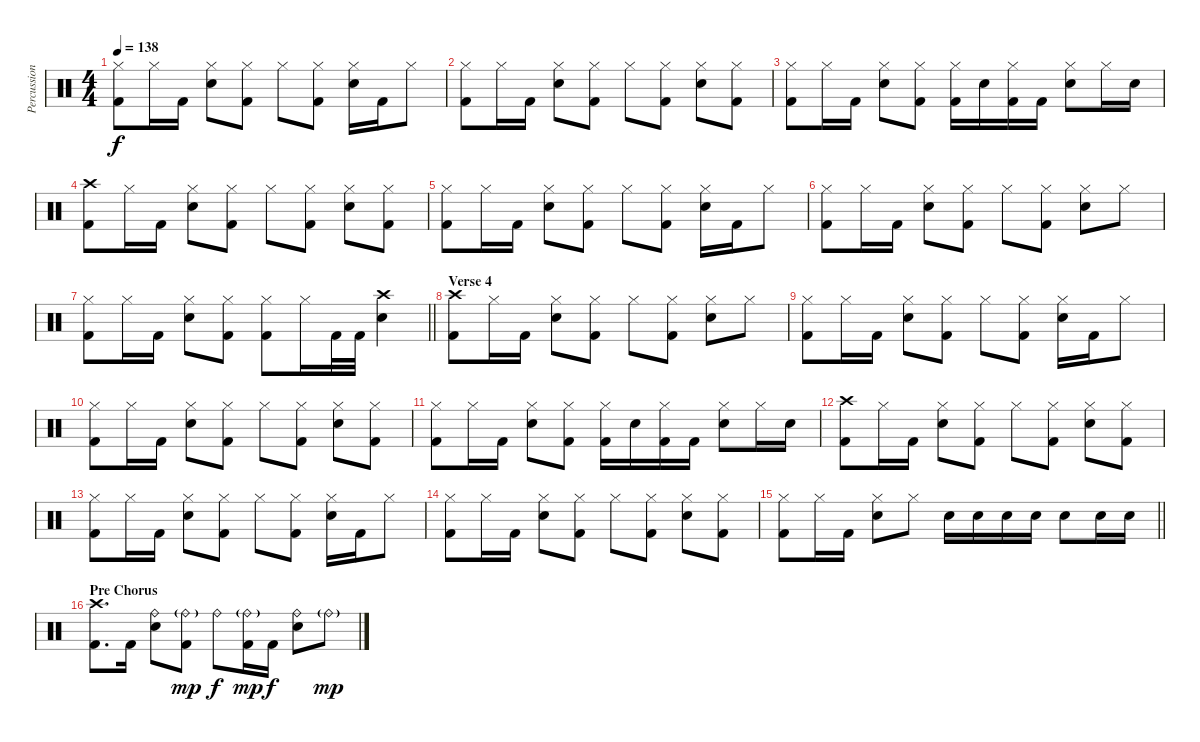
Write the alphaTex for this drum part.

\track ("Percussion" "Percussion") {instrument percussion}
\staff {score}
\articulation defaults
\ts (4 4)
\tempo 138
\clef neutral
\ks c
("Hi-Hat (closed)" "Kick (hit) 2").8{dy f} "Hi-Hat (closed)".16 "Kick (hit) 2".16 ("Hi-Hat (closed)" "Snare (hit) 2").8 ("Hi-Hat (closed)" "Kick (hit) 2").8 "Hi-Hat (closed)".8 ("Hi-Hat (closed)" "Kick (hit) 2").8 ("Hi-Hat (closed)" "Snare (hit) 2").16 "Kick (hit) 2".16 "Hi-Hat (closed)".8 |
("Hi-Hat (closed)" "Kick (hit) 2").8 "Hi-Hat (closed)".16 "Kick (hit) 2".16 ("Hi-Hat (closed)" "Snare (hit) 2").8 ("Hi-Hat (closed)" "Kick (hit) 2").8 "Hi-Hat (closed)".8 ("Hi-Hat (closed)" "Kick (hit) 2").8 ("Hi-Hat (closed)" "Snare (hit) 2").8 ("Hi-Hat (closed)" "Kick (hit) 2").8 |
("Hi-Hat (closed)" "Kick (hit) 2").8 "Hi-Hat (closed)".16 "Kick (hit) 2".16 ("Hi-Hat (closed)" "Snare (hit) 2").8 ("Hi-Hat (closed)" "Kick (hit) 2").8 ("Hi-Hat (closed)" "Kick (hit) 2").16 "Snare (hit) 2".16 ("Hi-Hat (closed)" "Kick (hit) 2").16 "Kick (hit) 2".16 ("Hi-Hat (closed)" "Snare (hit) 2").8 "Hi-Hat (closed)".16 "Snare (hit) 2".16 |
("Crash high (hit)" "Kick (hit) 2").8 "Hi-Hat (closed)".16 "Kick (hit) 2".16 ("Hi-Hat (closed)" "Snare (hit) 2").8 ("Hi-Hat (closed)" "Kick (hit) 2").8 "Hi-Hat (closed)".8 ("Hi-Hat (closed)" "Kick (hit) 2").8 ("Hi-Hat (closed)" "Snare (hit) 2").8 ("Hi-Hat (closed)" "Kick (hit) 2").8 |
("Hi-Hat (closed)" "Kick (hit) 2").8 "Hi-Hat (closed)".16 "Kick (hit) 2".16 ("Hi-Hat (closed)" "Snare (hit) 2").8 ("Hi-Hat (closed)" "Kick (hit) 2").8 "Hi-Hat (closed)".8 ("Hi-Hat (closed)" "Kick (hit) 2").8 ("Hi-Hat (closed)" "Snare (hit) 2").16 "Kick (hit) 2".16 "Hi-Hat (closed)".8 |
("Hi-Hat (closed)" "Kick (hit) 2").8 "Hi-Hat (closed)".16 "Kick (hit) 2".16 ("Hi-Hat (closed)" "Snare (hit) 2").8 ("Hi-Hat (closed)" "Kick (hit) 2").8 "Hi-Hat (closed)".8 ("Hi-Hat (closed)" "Kick (hit) 2").8 ("Hi-Hat (closed)" "Snare (hit) 2").8 "Hi-Hat (closed)".8 |
\barLineRight lightlight
("Hi-Hat (closed)" "Kick (hit) 2").8 "Hi-Hat (closed)".16 "Kick (hit) 2".16 ("Hi-Hat (closed)" "Snare (hit) 2").8 ("Hi-Hat (closed)" "Kick (hit) 2").8 ("Hi-Hat (closed)" "Kick (hit) 2").8 "Hi-Hat (closed)".16 "Kick (hit) 2".32 "Kick (hit) 2".32 ("Crash high (hit)" "Snare (hit) 2").4 |
\section ("" "Verse 4")
("Crash high (hit)" "Kick (hit) 2").8 "Hi-Hat (closed)".16 "Kick (hit) 2".16 ("Hi-Hat (closed)" "Snare (hit) 2").8 ("Hi-Hat (closed)" "Kick (hit) 2").8 "Hi-Hat (closed)".8 ("Hi-Hat (closed)" "Kick (hit) 2").8 ("Hi-Hat (closed)" "Snare (hit) 2").8 "Hi-Hat (closed)".8 |
("Hi-Hat (closed)" "Kick (hit) 2").8 "Hi-Hat (closed)".16 "Kick (hit) 2".16 ("Hi-Hat (closed)" "Snare (hit) 2").8 ("Hi-Hat (closed)" "Kick (hit) 2").8 "Hi-Hat (closed)".8 ("Hi-Hat (closed)" "Kick (hit) 2").8 ("Hi-Hat (closed)" "Snare (hit) 2").16 "Kick (hit) 2".16 "Hi-Hat (closed)".8 |
("Hi-Hat (closed)" "Kick (hit) 2").8 "Hi-Hat (closed)".16 "Kick (hit) 2".16 ("Hi-Hat (closed)" "Snare (hit) 2").8 ("Hi-Hat (closed)" "Kick (hit) 2").8 "Hi-Hat (closed)".8 ("Hi-Hat (closed)" "Kick (hit) 2").8 ("Hi-Hat (closed)" "Snare (hit) 2").8 ("Hi-Hat (closed)" "Kick (hit) 2").8 |
("Hi-Hat (closed)" "Kick (hit) 2").8 "Hi-Hat (closed)".16 "Kick (hit) 2".16 ("Hi-Hat (closed)" "Snare (hit) 2").8 ("Hi-Hat (closed)" "Kick (hit) 2").8 ("Hi-Hat (closed)" "Kick (hit) 2").16 "Snare (hit) 2".16 ("Hi-Hat (closed)" "Kick (hit) 2").16 "Kick (hit) 2".16 ("Hi-Hat (closed)" "Snare (hit) 2").8 "Hi-Hat (closed)".16 "Snare (hit) 2".16 |
("Crash high (hit)" "Kick (hit) 2").8 "Hi-Hat (closed)".16 "Kick (hit) 2".16 ("Hi-Hat (closed)" "Snare (hit) 2").8 ("Hi-Hat (closed)" "Kick (hit) 2").8 "Hi-Hat (closed)".8 ("Hi-Hat (closed)" "Kick (hit) 2").8 ("Hi-Hat (closed)" "Snare (hit) 2").8 ("Hi-Hat (closed)" "Kick (hit) 2").8 |
("Hi-Hat (closed)" "Kick (hit) 2").8 "Hi-Hat (closed)".16 "Kick (hit) 2".16 ("Hi-Hat (closed)" "Snare (hit) 2").8 ("Hi-Hat (closed)" "Kick (hit) 2").8 "Hi-Hat (closed)".8 ("Hi-Hat (closed)" "Kick (hit) 2").8 ("Hi-Hat (closed)" "Snare (hit) 2").16 "Kick (hit) 2".16 "Hi-Hat (closed)".8 |
("Hi-Hat (closed)" "Kick (hit) 2").8 "Hi-Hat (closed)".16 "Kick (hit) 2".16 ("Hi-Hat (closed)" "Snare (hit) 2").8 ("Hi-Hat (closed)" "Kick (hit) 2").8 "Hi-Hat (closed)".8 ("Hi-Hat (closed)" "Kick (hit) 2").8 ("Hi-Hat (closed)" "Snare (hit) 2").8 ("Hi-Hat (closed)" "Kick (hit) 2").8 |
\barLineRight lightlight
("Hi-Hat (closed)" "Kick (hit) 2").8 "Hi-Hat (closed)".16 "Kick (hit) 2".16 ("Hi-Hat (closed)" "Snare (hit) 2").8 "Hi-Hat (closed)".8 "Snare (hit) 2".16 "Snare (hit) 2".16 "Snare (hit) 2".16 "Snare (hit) 2".16 "Snare (hit) 2".8 "Snare (hit) 2".16 "Snare (hit) 2".16 |
\section ("" "Pre Chorus")
("Crash high (hit)" "Kick (hit) 2").8{d} "Kick (hit) 2".16 ("Ride (bell)" "Snare (hit) 2").8 ("Ride (bell)"{g} "Kick (hit) 2").8{dy mp} "Ride (bell)".8{dy f} ("Ride (bell)"{g} "Kick (hit) 2").16{dy mp} "Kick (hit) 2".16{dy f} ("Ride (bell)" "Snare (hit) 2").8 "Ride (bell)"{g}.8{dy mp}
